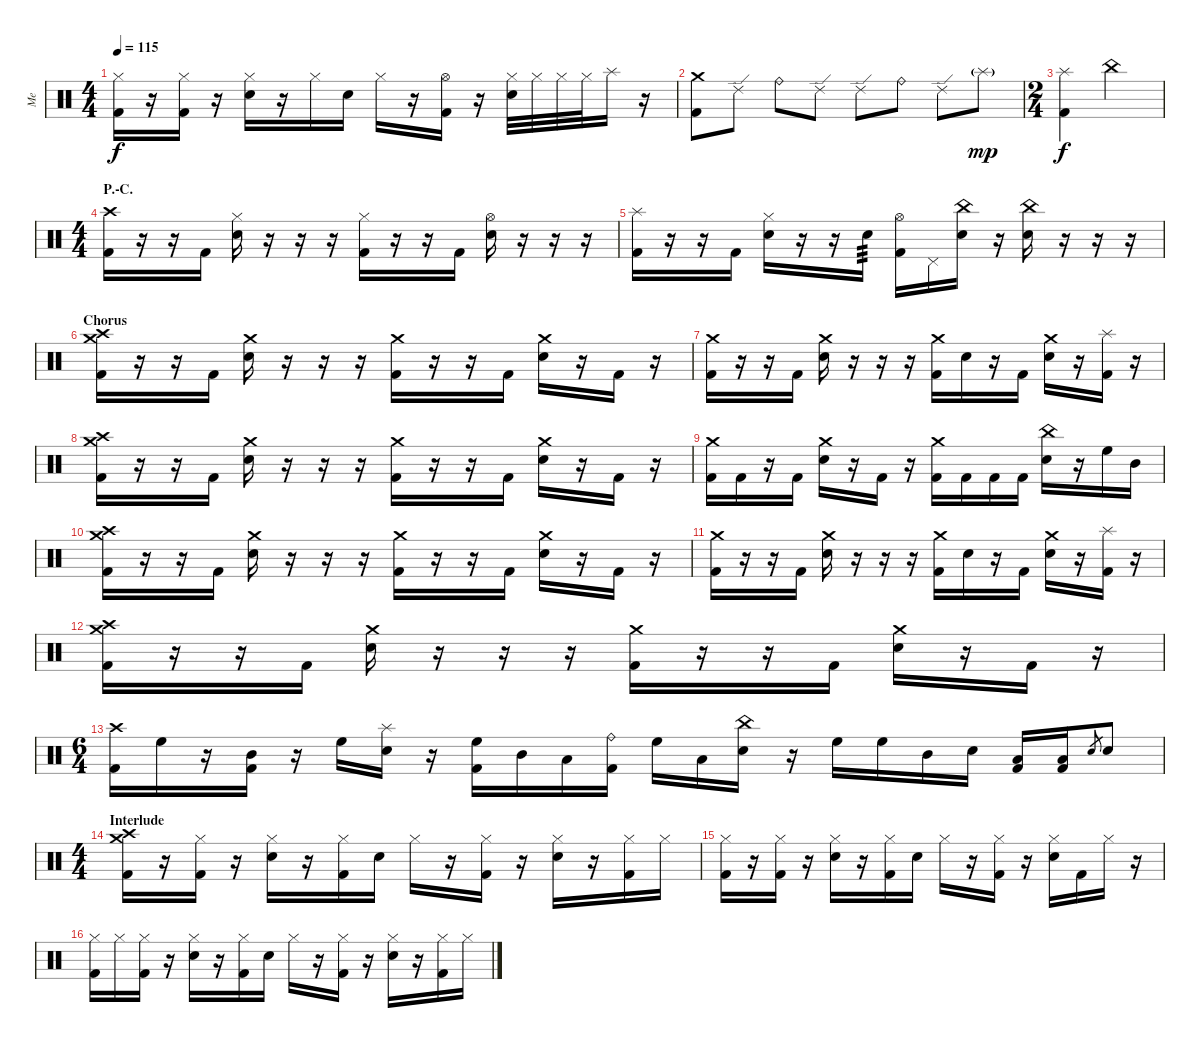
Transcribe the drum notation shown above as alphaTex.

\track ("Me" "Me") {instrument percussion}
\staff {score}
\articulation defaults
\ts (4 4)
\tempo 115
\clef neutral
\ks c
("Hi-Hat (closed)" "Kick (hit) 2").16{dy f} r.16 ("Hi-Hat (closed)" "Kick (hit) 2").16 r.16 ("Hi-Hat (closed)" "Electric Snare (hit)").16 r.16 "Hi-Hat (closed)".16 "Electric Snare (hit)".16 "Hi-Hat (closed)".16 r.16 ("Hi-Hat (open)" "Kick (hit) 2").16 r.16 ("Hi-Hat (closed)" "Electric Snare (hit)").32 "Hi-Hat (closed)".32 "Hi-Hat (closed)".32 "Hi-Hat (closed)".32 "Splash (hit)".16 r.16 |
("Crash medium (hit)" "Kick (hit) 2").8 "Ride (edge) 2".8 "Ride (bell)".8 "Ride (edge) 2".8 "Ride (edge) 2".8 "Ride (bell)".8 "Ride (edge) 2".8 "Splash (hit)"{g}.8{dy mp} |
\ts (2 4)
("Splash (hit)" "Kick (hit) 2").4{dy f} "China (hit)".4 |
\ts (4 4)
\section ("" "P.-C.")
("Crash high (hit)" "Kick (hit) 2").16 r.16 r.16 "Kick (hit) 2".16 ("Hi-Hat (closed)" "Electric Snare (hit)").16 r.16 r.16 r.16 ("Hi-Hat (closed)" "Kick (hit) 2").16 r.16 r.16 "Kick (hit) 2".16 ("Hi-Hat (open)" "Electric Snare (hit)").16 r.16 r.16 r.16 |
("Splash (hit)" "Kick (hit) 2").16 r.16 r.16 "Kick (hit) 2".16 ("Hi-Hat (closed)" "Electric Snare (hit)").16 r.16 r.16 "Electric Snare (hit)".16{tp 3} ("Hi-Hat (open)" "Kick (hit) 2").16 "Pedal Hi-Hat (hit)".16 ("China (hit)" "Electric Snare (hit)").16 r.16 ("China (hit)" "Electric Snare (hit)").16 r.16 r.16 r.16 |
\section ("" "Chorus")
("Crash high (hit)" "Crash medium (hit)" "Kick (hit) 2").16 r.16 r.16 "Kick (hit) 2".16 ("Crash medium (hit)" "Electric Snare (hit)").16 r.16 r.16 r.16 ("Crash medium (hit)" "Kick (hit) 2").16 r.16 r.16 "Kick (hit) 2".16 ("Crash medium (hit)" "Electric Snare (hit)").16 r.16 "Kick (hit) 2".16 r.16 |
("Crash medium (hit)" "Kick (hit) 2").16 r.16 r.16 "Kick (hit) 2".16 ("Crash medium (hit)" "Electric Snare (hit)").16 r.16 r.16 r.16 ("Crash medium (hit)" "Kick (hit) 2").16 "Electric Snare (hit)".16 r.16 "Kick (hit) 2".16 ("Crash medium (hit)" "Electric Snare (hit)").16 r.16 ("Splash (hit)" "Kick (hit) 2").16 r.16 |
("Crash high (hit)" "Crash medium (hit)" "Kick (hit) 2").16 r.16 r.16 "Kick (hit) 2".16 ("Crash medium (hit)" "Electric Snare (hit)").16 r.16 r.16 r.16 ("Crash medium (hit)" "Kick (hit) 2").16 r.16 r.16 "Kick (hit) 2".16 ("Crash medium (hit)" "Electric Snare (hit)").16 r.16 "Kick (hit) 2".16 r.16 |
("Crash medium (hit)" "Kick (hit) 2").16 "Kick (hit) 2".16 r.16 "Kick (hit) 2".16 ("Crash medium (hit)" "Electric Snare (hit)").16 r.16 "Kick (hit) 2".16 r.16 ("Crash medium (hit)" "Kick (hit) 2").16 "Kick (hit) 2".16 "Kick (hit) 2".16 "Kick (hit) 2".16 ("China (hit)" "Electric Snare (hit)").16 r.16 "High Floor Tom (hit)".16 "Mid Tom (hit)".16 |
("Crash high (hit)" "Crash medium (hit)" "Kick (hit) 2").16 r.16 r.16 "Kick (hit) 2".16 ("Crash medium (hit)" "Electric Snare (hit)").16 r.16 r.16 r.16 ("Crash medium (hit)" "Kick (hit) 2").16 r.16 r.16 "Kick (hit) 2".16 ("Crash medium (hit)" "Electric Snare (hit)").16 r.16 "Kick (hit) 2".16 r.16 |
("Crash medium (hit)" "Kick (hit) 2").16 r.16 r.16 "Kick (hit) 2".16 ("Crash medium (hit)" "Electric Snare (hit)").16 r.16 r.16 r.16 ("Crash medium (hit)" "Kick (hit) 2").16 "Electric Snare (hit)".16 r.16 "Kick (hit) 2".16 ("Crash medium (hit)" "Electric Snare (hit)").16 r.16 ("Splash (hit)" "Kick (hit) 2").16 r.16 |
("Crash high (hit)" "Crash medium (hit)" "Kick (hit) 2").16 r.16 r.16 "Kick (hit) 2".16 ("Crash medium (hit)" "Electric Snare (hit)").16 r.16 r.16 r.16 ("Crash medium (hit)" "Kick (hit) 2").16 r.16 r.16 "Kick (hit) 2".16 ("Crash medium (hit)" "Electric Snare (hit)").16 r.16 "Kick (hit) 2".16 r.16 |
\ts (6 4)
("Crash high (hit)" "Kick (hit) 2").16 "High Floor Tom (hit)".16 r.16 ("Mid Tom (hit)" "Kick (hit) 2").16 r.16 "High Floor Tom (hit)".16 ("Splash (hit)" "Electric Snare (hit)").16 r.16 ("High Floor Tom (hit)" "Kick (hit) 2").16 "Mid Tom (hit)".16 "Low Tom (hit)".16 ("Ride (bell)" "Kick (hit) 2").16 "High Floor Tom (hit)".16 "Low Tom (hit)".16 ("China (hit)" "Electric Snare (hit)").16 r.16 "High Floor Tom (hit)".16 "High Floor Tom (hit)".16 "Mid Tom (hit)".16 "Electric Snare (hit)".16 ("Low Tom (hit)" "Kick (hit) 2").16 ("Low Tom (hit)" "Kick (hit) 2").16 "Electric Snare (hit)".8{gr} "Electric Snare (hit)".8 |
\ts (4 4)
\section ("" "Interlude")
("Crash high (hit)" "Crash medium (hit)" "Kick (hit) 2").16 r.16 ("Hi-Hat (closed)" "Kick (hit) 2").16 r.16 ("Hi-Hat (closed)" "Electric Snare (hit)").16 r.16 ("Hi-Hat (closed)" "Kick (hit) 2").16 "Electric Snare (hit)".16 "Hi-Hat (closed)".16 r.16 ("Hi-Hat (closed)" "Kick (hit) 2").16 r.16 ("Hi-Hat (closed)" "Electric Snare (hit)").16 r.16 ("Hi-Hat (closed)" "Kick (hit) 2").16 "Hi-Hat (closed)".16 |
("Hi-Hat (closed)" "Kick (hit) 2").16 r.16 ("Hi-Hat (closed)" "Kick (hit) 2").16 r.16 ("Hi-Hat (closed)" "Electric Snare (hit)").16 r.16 ("Hi-Hat (closed)" "Kick (hit) 2").16 "Electric Snare (hit)".16 "Hi-Hat (closed)".16 r.16 ("Hi-Hat (closed)" "Kick (hit) 2").16 r.16 ("Hi-Hat (closed)" "Electric Snare (hit)").16 "Kick (hit) 2".16 "Hi-Hat (closed)".16 r.16 |
("Hi-Hat (closed)" "Kick (hit) 2").16 "Hi-Hat (closed)".16 ("Hi-Hat (closed)" "Kick (hit) 2").16 r.16 ("Hi-Hat (closed)" "Electric Snare (hit)").16 r.16 ("Hi-Hat (closed)" "Kick (hit) 2").16 "Electric Snare (hit)".16 "Hi-Hat (closed)".16 r.16 ("Hi-Hat (closed)" "Kick (hit) 2").16 r.16 ("Hi-Hat (closed)" "Electric Snare (hit)").16 r.16 ("Hi-Hat (closed)" "Kick (hit) 2").16 "Hi-Hat (closed)".16
